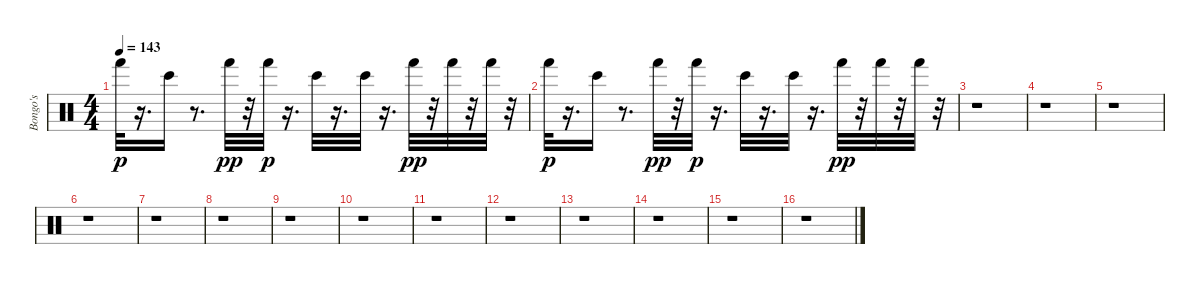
\track ("Bongo's  " "Bongo's  ") {instrument percussion}
\staff {score}
\articulation defaults
\ts (4 4)
\tempo 143
\clef neutral
\ks c "Hand (hit)".32{dy p}
r.16{d} "Bongo High (hit)".16 r.8{d} "Hand (hit)".32{dy pp} r.32 "Hand (hit)".32{dy p} r.16{d} "Bongo High (hit)".32 r.16{d} "Bongo High (hit)".32 r.16{d} "Hand (hit)".32{dy pp} r.32 "Hand (hit)".32 r.32 "Hand (hit)".32 r.32 |
"Hand (hit)".32{dy p} r.16{d} "Bongo High (hit)".16 r.8{d} "Hand (hit)".32{dy pp} r.32 "Hand (hit)".32{dy p} r.16{d} "Bongo High (hit)".32 r.16{d} "Bongo High (hit)".32 r.16{d} "Hand (hit)".32{dy pp} r.32 "Hand (hit)".32 r.32 "Hand (hit)".32 r.32 |
r.1 |
r.1 |
r.1 |
r.1 |
r.1 |
r.1 |
r.1 |
r.1 |
r.1 |
r.1 |
r.1 |
r.1 |
r.1 |
r.1
